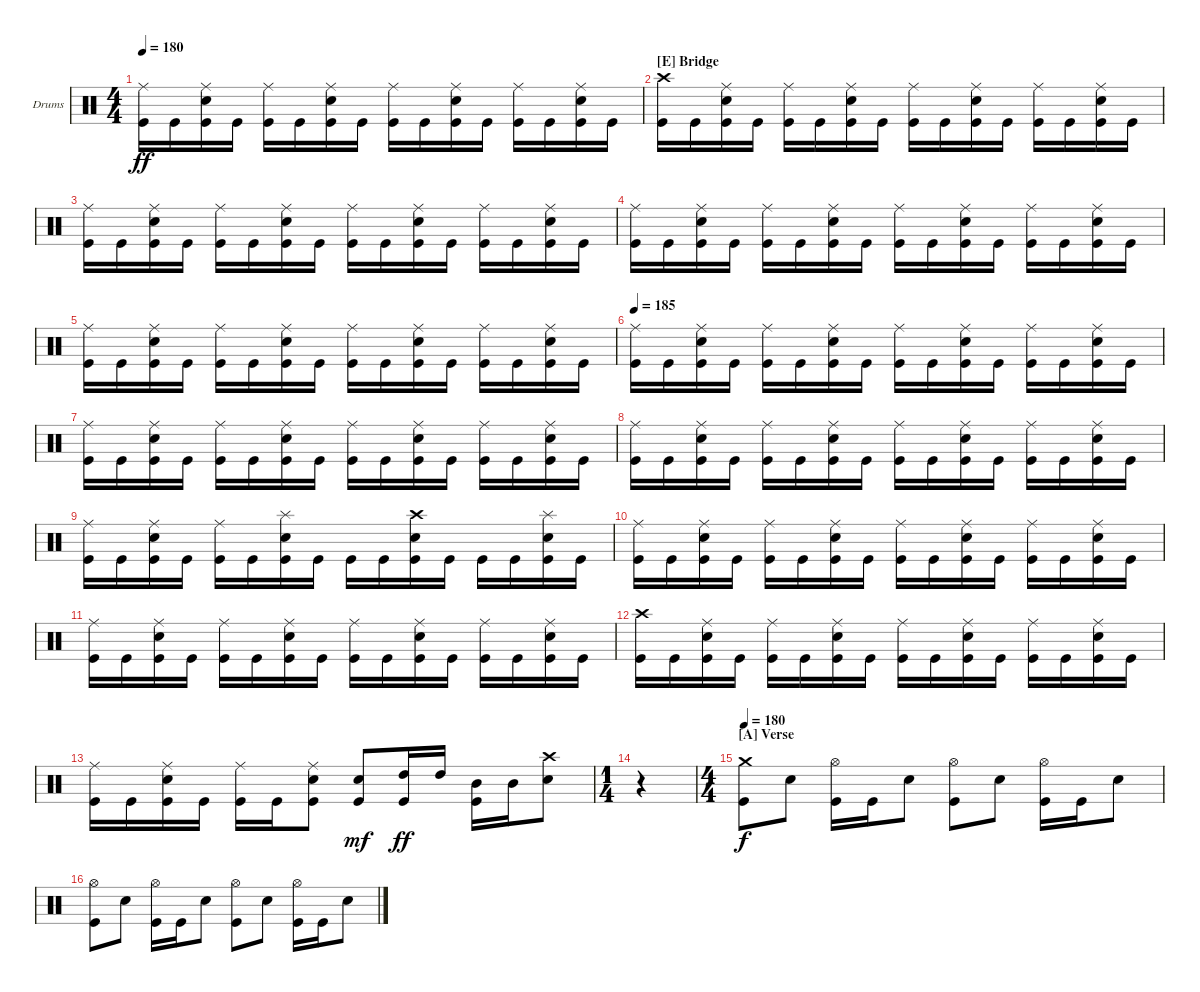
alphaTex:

\bracketExtendMode groupsimilarinstruments
\firstSystemTrackNameOrientation horizontal
\otherSystemsTrackNameOrientation horizontal
\track ("Drumkit" "Drums") {instrument percussion}
\staff {score}
\articulation defaults
\ts (4 4)
\tempo 180
\clef neutral
\scale
1.02648
\ks c
("Kick (hit)" "Ride (middle)").16{dy ff} "Kick (hit)".16 ("Snare (hit) 2" "Kick (hit)" "Ride (middle)").16 "Kick (hit)".16 ("Kick (hit)" "Ride (middle)").16 "Kick (hit)".16 ("Kick (hit)" "Snare (hit) 2" "Ride (middle)").16 "Kick (hit)".16 ("Kick (hit)" "Ride (middle)").16 "Kick (hit)".16 ("Snare (hit) 2" "Kick (hit)" "Ride (middle)").16 "Kick (hit)".16 ("Kick (hit)" "Ride (middle)").16 "Kick (hit)".16 ("Kick (hit)" "Snare (hit) 2" "Ride (middle)").16 "Kick (hit)".16 |
\section ("E" "Bridge")
\scale
0.973518 ("Kick (hit)" "Crash high (hit)").16 "Kick (hit)".16 ("Snare (hit) 2" "Kick (hit)" "Ride (middle)").16 "Kick (hit)".16 ("Kick (hit)" "Ride (middle)").16 "Kick (hit)".16 ("Kick (hit)" "Snare (hit) 2" "Ride (middle)").16 "Kick (hit)".16 ("Kick (hit)" "Ride (middle)").16 "Kick (hit)".16 ("Snare (hit) 2" "Kick (hit)" "Ride (middle)").16 "Kick (hit)".16 ("Kick (hit)" "Ride (middle)").16 "Kick (hit)".16 ("Kick (hit)" "Snare (hit) 2" "Ride (middle)").16 "Kick (hit)".16 |
\scale
1.02648 ("Kick (hit)" "Ride (middle)").16 "Kick (hit)".16 ("Snare (hit) 2" "Kick (hit)" "Ride (middle)").16 "Kick (hit)".16 ("Kick (hit)" "Ride (middle)").16 "Kick (hit)".16 ("Kick (hit)" "Snare (hit) 2" "Ride (middle)").16 "Kick (hit)".16 ("Kick (hit)" "Ride (middle)").16 "Kick (hit)".16 ("Snare (hit) 2" "Kick (hit)" "Ride (middle)").16 "Kick (hit)".16 ("Kick (hit)" "Ride (middle)").16 "Kick (hit)".16 ("Kick (hit)" "Snare (hit) 2" "Ride (middle)").16 "Kick (hit)".16 |
\scale
0.973518 ("Kick (hit)" "Ride (middle)").16 "Kick (hit)".16 ("Snare (hit) 2" "Kick (hit)" "Ride (middle)").16 "Kick (hit)".16 ("Kick (hit)" "Ride (middle)").16 "Kick (hit)".16 ("Kick (hit)" "Snare (hit) 2" "Ride (middle)").16 "Kick (hit)".16 ("Kick (hit)" "Ride (middle)").16 "Kick (hit)".16 ("Snare (hit) 2" "Kick (hit)" "Ride (middle)").16 "Kick (hit)".16 ("Kick (hit)" "Ride (middle)").16 "Kick (hit)".16 ("Kick (hit)" "Snare (hit) 2" "Ride (middle)").16 "Kick (hit)".16 |
\scale
1.02648 ("Kick (hit)" "Ride (middle)").16 "Kick (hit)".16 ("Snare (hit) 2" "Kick (hit)" "Ride (middle)").16 "Kick (hit)".16 ("Kick (hit)" "Ride (middle)").16 "Kick (hit)".16 ("Kick (hit)" "Snare (hit) 2" "Ride (middle)").16 "Kick (hit)".16 ("Kick (hit)" "Ride (middle)").16 "Kick (hit)".16 ("Snare (hit) 2" "Kick (hit)" "Ride (middle)").16 "Kick (hit)".16 ("Kick (hit)" "Ride (middle)").16 "Kick (hit)".16 ("Kick (hit)" "Snare (hit) 2" "Ride (middle)").16 "Kick (hit)".16 |
\tempo 185
\scale
0.973518 ("Kick (hit)" "Ride (middle)").16 "Kick (hit)".16 ("Snare (hit) 2" "Kick (hit)" "Ride (middle)").16 "Kick (hit)".16 ("Kick (hit)" "Ride (middle)").16 "Kick (hit)".16 ("Kick (hit)" "Snare (hit) 2" "Ride (middle)").16 "Kick (hit)".16 ("Kick (hit)" "Ride (middle)").16 "Kick (hit)".16 ("Snare (hit) 2" "Kick (hit)" "Ride (middle)").16 "Kick (hit)".16 ("Kick (hit)" "Ride (middle)").16 "Kick (hit)".16 ("Kick (hit)" "Snare (hit) 2" "Ride (middle)").16 "Kick (hit)".16 |
\scale
1.02648 ("Kick (hit)" "Ride (middle)").16 "Kick (hit)".16 ("Snare (hit) 2" "Kick (hit)" "Ride (middle)").16 "Kick (hit)".16 ("Kick (hit)" "Ride (middle)").16 "Kick (hit)".16 ("Kick (hit)" "Snare (hit) 2" "Ride (middle)").16 "Kick (hit)".16 ("Kick (hit)" "Ride (middle)").16 "Kick (hit)".16 ("Snare (hit) 2" "Kick (hit)" "Ride (middle)").16 "Kick (hit)".16 ("Kick (hit)" "Ride (middle)").16 "Kick (hit)".16 ("Kick (hit)" "Snare (hit) 2" "Ride (middle)").16 "Kick (hit)".16 |
\scale
0.973518 ("Kick (hit)" "Ride (middle)").16 "Kick (hit)".16 ("Snare (hit) 2" "Kick (hit)" "Ride (middle)").16 "Kick (hit)".16 ("Kick (hit)" "Ride (middle)").16 "Kick (hit)".16 ("Kick (hit)" "Snare (hit) 2" "Ride (middle)").16 "Kick (hit)".16 ("Kick (hit)" "Ride (middle)").16 "Kick (hit)".16 ("Snare (hit) 2" "Kick (hit)" "Ride (middle)").16 "Kick (hit)".16 ("Kick (hit)" "Ride (middle)").16 "Kick (hit)".16 ("Kick (hit)" "Snare (hit) 2" "Ride (middle)").16 "Kick (hit)".16 |
\scale
1.02648 ("Kick (hit)" "Ride (middle)").16 "Kick (hit)".16 ("Snare (hit) 2" "Kick (hit)" "Ride (middle)").16 "Kick (hit)".16 ("Kick (hit)" "Ride (middle)").16 "Kick (hit)".16 ("Kick (hit)" "Snare (hit) 2" "Splash (hit)").16 "Kick (hit)".16 "Kick (hit)".16 "Kick (hit)".16 ("Snare (hit) 2" "Kick (hit)" "Crash high (hit)").16 "Kick (hit)".16 "Kick (hit)".16 "Kick (hit)".16 ("Kick (hit)" "Snare (hit) 2" "Splash (hit)").16 "Kick (hit)".16 |
\scale
0.973518 ("Kick (hit)" "Ride (middle)").16 "Kick (hit)".16 ("Snare (hit) 2" "Kick (hit)" "Ride (middle)").16 "Kick (hit)".16 ("Kick (hit)" "Ride (middle)").16 "Kick (hit)".16 ("Kick (hit)" "Snare (hit) 2" "Ride (middle)").16 "Kick (hit)".16 ("Kick (hit)" "Ride (middle)").16 "Kick (hit)".16 ("Snare (hit) 2" "Kick (hit)" "Ride (middle)").16 "Kick (hit)".16 ("Kick (hit)" "Ride (middle)").16 "Kick (hit)".16 ("Kick (hit)" "Snare (hit) 2" "Ride (middle)").16 "Kick (hit)".16 |
\scale
1.02648 ("Kick (hit)" "Ride (middle)").16 "Kick (hit)".16 ("Snare (hit) 2" "Kick (hit)" "Ride (middle)").16 "Kick (hit)".16 ("Kick (hit)" "Ride (middle)").16 "Kick (hit)".16 ("Kick (hit)" "Snare (hit) 2" "Ride (middle)").16 "Kick (hit)".16 ("Kick (hit)" "Ride (middle)").16 "Kick (hit)".16 ("Snare (hit) 2" "Kick (hit)" "Ride (middle)").16 "Kick (hit)".16 ("Kick (hit)" "Ride (middle)").16 "Kick (hit)".16 ("Kick (hit)" "Snare (hit) 2" "Ride (middle)").16 "Kick (hit)".16 |
\scale
0.973518 ("Kick (hit)" "Crash high (hit)").16 "Kick (hit)".16 ("Snare (hit) 2" "Kick (hit)" "Ride (middle)").16 "Kick (hit)".16 ("Kick (hit)" "Ride (middle)").16 "Kick (hit)".16 ("Kick (hit)" "Snare (hit) 2" "Ride (middle)").16 "Kick (hit)".16 ("Kick (hit)" "Ride (middle)").16 "Kick (hit)".16 ("Snare (hit) 2" "Kick (hit)" "Ride (middle)").16 "Kick (hit)".16 ("Kick (hit)" "Ride (middle)").16 "Kick (hit)".16 ("Kick (hit)" "Snare (hit) 2" "Ride (middle)").16 "Kick (hit)".16 |
\scale
1.02648 ("Kick (hit)" "Ride (middle)").16 "Kick (hit)".16 ("Snare (hit) 2" "Kick (hit)" "Ride (middle)").16 "Kick (hit)".16 ("Kick (hit)" "Ride (middle)").16 "Kick (hit)".16 ("Snare (hit) 2" "Kick (hit)" "Ride (middle)").8 ("Snare (hit) 2" "Kick (hit)").8{dy mf} ("High Tom (hit)" "Kick (hit)").16{dy ff} "High Tom (hit)".16 ("Mid Tom (hit)" "Kick (hit)").16 "Mid Tom (hit)".16 ("Snare (hit) 2" "Crash high (hit)").8 |
\ts (1 4)
r.4 |
\ts (4 4)
\section ("A" "Verse")
\tempo 180
\scale
0.973518 ("Kick (hit)" "Crash medium (hit)").8{dy f} "Snare (hit) 2".8 ("Kick (hit)" "Hi-Hat (open)").16 "Kick (hit)".16 "Snare (hit) 2".8 ("Kick (hit)" "Hi-Hat (open)").8 "Snare (hit) 2".8 ("Kick (hit)" "Hi-Hat (open)").16 "Kick (hit)".16 "Snare (hit) 2".8 |
\scale
1.02648 ("Kick (hit)" "Hi-Hat (open)").8 "Snare (hit) 2".8 ("Kick (hit)" "Hi-Hat (open)").16 "Kick (hit)".16 "Snare (hit) 2".8 ("Kick (hit)" "Hi-Hat (open)").8 "Snare (hit) 2".8 ("Kick (hit)" "Hi-Hat (open)").16 "Kick (hit)".16 "Snare (hit) 2".8
